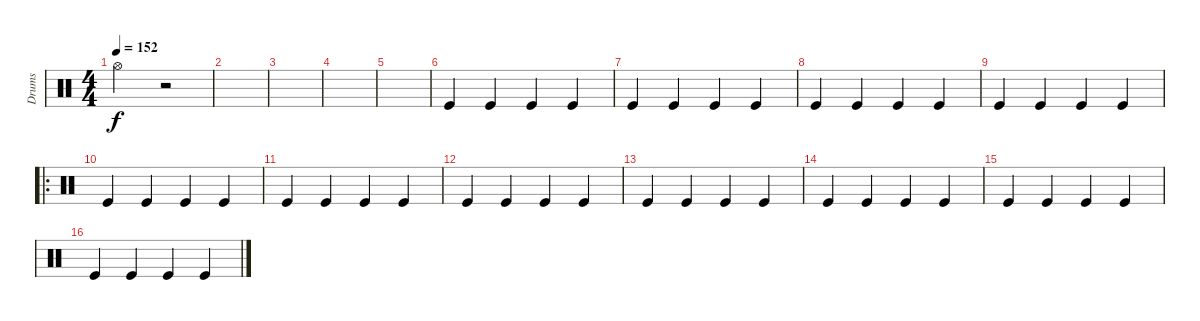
\track ("Drums" "Drums") {instrument percussion}
\staff {score}
\articulation defaults
\ts (4 4)
\tempo 152
\clef neutral
\ks c "Hi-Hat (open)".2{dy f}
r.2 |
|
|
|
|
"Kick (hit)".4 "Kick (hit)".4 "Kick (hit)".4 "Kick (hit)".4 |
"Kick (hit)".4 "Kick (hit)".4 "Kick (hit)".4 "Kick (hit)".4 |
"Kick (hit)".4 "Kick (hit)".4 "Kick (hit)".4 "Kick (hit)".4 |
"Kick (hit)".4 "Kick (hit)".4 "Kick (hit)".4 "Kick (hit)".4 |
\ro "Kick (hit)".4 "Kick (hit)".4 "Kick (hit)".4 "Kick (hit)".4
|
"Kick (hit)".4 "Kick (hit)".4 "Kick (hit)".4 "Kick (hit)".4 |
"Kick (hit)".4 "Kick (hit)".4 "Kick (hit)".4 "Kick (hit)".4 |
"Kick (hit)".4 "Kick (hit)".4 "Kick (hit)".4 "Kick (hit)".4 |
"Kick (hit)".4 "Kick (hit)".4 "Kick (hit)".4 "Kick (hit)".4 |
"Kick (hit)".4 "Kick (hit)".4 "Kick (hit)".4 "Kick (hit)".4 |
"Kick (hit)".4 "Kick (hit)".4 "Kick (hit)".4 "Kick (hit)".4
